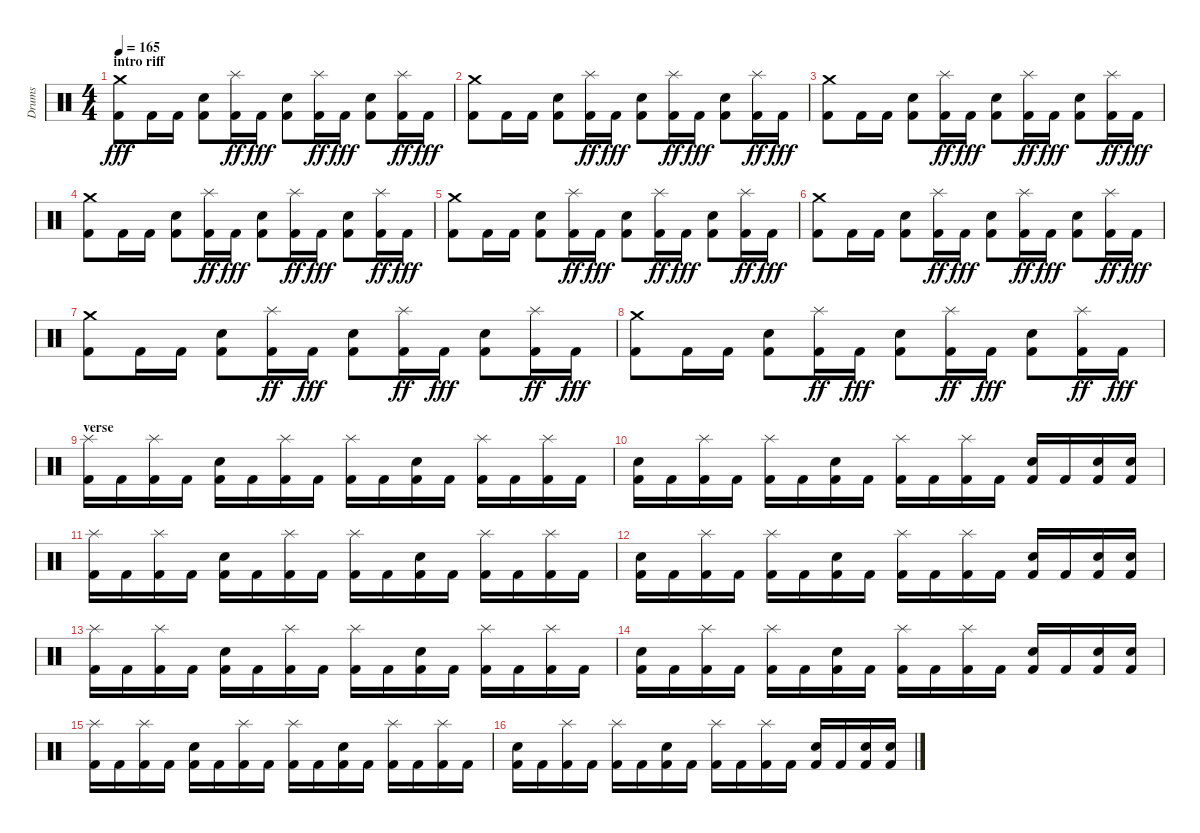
\track ("Drums" "Drums") {instrument percussion}
\staff {score}
\articulation defaults
\ts (4 4)
\section ("" "intro riff")
\tempo 165
\clef neutral
\ks c
("Kick (hit) 2" "Crash medium (hit)").8{dy fff} "Kick (hit) 2".16 "Kick (hit) 2".16 ("Kick (hit) 2" "Electric Snare (hit)").8 ("Kick (hit) 2" "Splash (hit)").16{dy ff} "Kick (hit) 2".16{dy fff} ("Kick (hit) 2" "Electric Snare (hit)").8 ("Kick (hit) 2" "Splash (hit)").16{dy ff} "Kick (hit) 2".16{dy fff} ("Kick (hit) 2" "Electric Snare (hit)").8 ("Kick (hit) 2" "Splash (hit)").16{dy ff} "Kick (hit) 2".16{dy fff} |
("Kick (hit) 2" "Crash medium (hit)").8 "Kick (hit) 2".16 "Kick (hit) 2".16 ("Kick (hit) 2" "Electric Snare (hit)").8 ("Kick (hit) 2" "Splash (hit)").16{dy ff} "Kick (hit) 2".16{dy fff} ("Kick (hit) 2" "Electric Snare (hit)").8 ("Kick (hit) 2" "Splash (hit)").16{dy ff} "Kick (hit) 2".16{dy fff} ("Kick (hit) 2" "Electric Snare (hit)").8 ("Kick (hit) 2" "Splash (hit)").16{dy ff} "Kick (hit) 2".16{dy fff} |
("Kick (hit) 2" "Crash medium (hit)").8 "Kick (hit) 2".16 "Kick (hit) 2".16 ("Kick (hit) 2" "Electric Snare (hit)").8 ("Kick (hit) 2" "Splash (hit)").16{dy ff} "Kick (hit) 2".16{dy fff} ("Kick (hit) 2" "Electric Snare (hit)").8 ("Kick (hit) 2" "Splash (hit)").16{dy ff} "Kick (hit) 2".16{dy fff} ("Kick (hit) 2" "Electric Snare (hit)").8 ("Kick (hit) 2" "Splash (hit)").16{dy ff} "Kick (hit) 2".16{dy fff} |
("Kick (hit) 2" "Crash medium (hit)").8 "Kick (hit) 2".16 "Kick (hit) 2".16 ("Kick (hit) 2" "Electric Snare (hit)").8 ("Kick (hit) 2" "Splash (hit)").16{dy ff} "Kick (hit) 2".16{dy fff} ("Kick (hit) 2" "Electric Snare (hit)").8 ("Kick (hit) 2" "Splash (hit)").16{dy ff} "Kick (hit) 2".16{dy fff} ("Kick (hit) 2" "Electric Snare (hit)").8 ("Kick (hit) 2" "Splash (hit)").16{dy ff} "Kick (hit) 2".16{dy fff} |
("Kick (hit) 2" "Crash medium (hit)").8 "Kick (hit) 2".16 "Kick (hit) 2".16 ("Kick (hit) 2" "Electric Snare (hit)").8 ("Kick (hit) 2" "Splash (hit)").16{dy ff} "Kick (hit) 2".16{dy fff} ("Kick (hit) 2" "Electric Snare (hit)").8 ("Kick (hit) 2" "Splash (hit)").16{dy ff} "Kick (hit) 2".16{dy fff} ("Kick (hit) 2" "Electric Snare (hit)").8 ("Kick (hit) 2" "Splash (hit)").16{dy ff} "Kick (hit) 2".16{dy fff} |
("Kick (hit) 2" "Crash medium (hit)").8 "Kick (hit) 2".16 "Kick (hit) 2".16 ("Kick (hit) 2" "Electric Snare (hit)").8 ("Kick (hit) 2" "Splash (hit)").16{dy ff} "Kick (hit) 2".16{dy fff} ("Kick (hit) 2" "Electric Snare (hit)").8 ("Kick (hit) 2" "Splash (hit)").16{dy ff} "Kick (hit) 2".16{dy fff} ("Kick (hit) 2" "Electric Snare (hit)").8 ("Kick (hit) 2" "Splash (hit)").16{dy ff} "Kick (hit) 2".16{dy fff} |
("Kick (hit) 2" "Crash medium (hit)").8 "Kick (hit) 2".16 "Kick (hit) 2".16 ("Kick (hit) 2" "Electric Snare (hit)").8 ("Kick (hit) 2" "Splash (hit)").16{dy ff} "Kick (hit) 2".16{dy fff} ("Kick (hit) 2" "Electric Snare (hit)").8 ("Kick (hit) 2" "Splash (hit)").16{dy ff} "Kick (hit) 2".16{dy fff} ("Kick (hit) 2" "Electric Snare (hit)").8 ("Kick (hit) 2" "Splash (hit)").16{dy ff} "Kick (hit) 2".16{dy fff} |
("Kick (hit) 2" "Crash medium (hit)").8 "Kick (hit) 2".16 "Kick (hit) 2".16 ("Kick (hit) 2" "Electric Snare (hit)").8 ("Kick (hit) 2" "Splash (hit)").16{dy ff} "Kick (hit) 2".16{dy fff} ("Kick (hit) 2" "Electric Snare (hit)").8 ("Kick (hit) 2" "Splash (hit)").16{dy ff} "Kick (hit) 2".16{dy fff} ("Kick (hit) 2" "Electric Snare (hit)").8 ("Kick (hit) 2" "Splash (hit)").16{dy ff} "Kick (hit) 2".16{dy fff} |
\section ("" "verse")
("Splash (hit)" "Kick (hit) 2").16 "Kick (hit) 2".16 ("Splash (hit)" "Kick (hit) 2").16 "Kick (hit) 2".16 ("Snare (hit) 2" "Kick (hit) 2").16 "Kick (hit) 2".16 ("Splash (hit)" "Kick (hit) 2").16 "Kick (hit) 2".16 ("Splash (hit)" "Kick (hit) 2").16 "Kick (hit) 2".16 ("Snare (hit) 2" "Kick (hit) 2").16 "Kick (hit) 2".16 ("Splash (hit)" "Kick (hit) 2").16 "Kick (hit) 2".16 ("Splash (hit)" "Kick (hit) 2").16 "Kick (hit) 2".16 |
("Snare (hit) 2" "Kick (hit) 2").16 "Kick (hit) 2".16 ("Splash (hit)" "Kick (hit) 2").16 "Kick (hit) 2".16 ("Splash (hit)" "Kick (hit) 2").16 "Kick (hit) 2".16 ("Snare (hit) 2" "Kick (hit) 2").16 "Kick (hit) 2".16 ("Splash (hit)" "Kick (hit) 2").16 "Kick (hit) 2".16 ("Splash (hit)" "Kick (hit) 2").16 "Kick (hit) 2".16 ("Snare (hit) 2" "Kick (hit) 2").16 "Kick (hit) 2".16 ("Snare (hit) 2" "Kick (hit) 2").16 ("Snare (hit) 2" "Kick (hit) 2").16 |
("Splash (hit)" "Kick (hit) 2").16 "Kick (hit) 2".16 ("Splash (hit)" "Kick (hit) 2").16 "Kick (hit) 2".16 ("Snare (hit) 2" "Kick (hit) 2").16 "Kick (hit) 2".16 ("Splash (hit)" "Kick (hit) 2").16 "Kick (hit) 2".16 ("Splash (hit)" "Kick (hit) 2").16 "Kick (hit) 2".16 ("Snare (hit) 2" "Kick (hit) 2").16 "Kick (hit) 2".16 ("Splash (hit)" "Kick (hit) 2").16 "Kick (hit) 2".16 ("Splash (hit)" "Kick (hit) 2").16 "Kick (hit) 2".16 |
("Snare (hit) 2" "Kick (hit) 2").16 "Kick (hit) 2".16 ("Splash (hit)" "Kick (hit) 2").16 "Kick (hit) 2".16 ("Splash (hit)" "Kick (hit) 2").16 "Kick (hit) 2".16 ("Snare (hit) 2" "Kick (hit) 2").16 "Kick (hit) 2".16 ("Splash (hit)" "Kick (hit) 2").16 "Kick (hit) 2".16 ("Splash (hit)" "Kick (hit) 2").16 "Kick (hit) 2".16 ("Snare (hit) 2" "Kick (hit) 2").16 "Kick (hit) 2".16 ("Snare (hit) 2" "Kick (hit) 2").16 ("Snare (hit) 2" "Kick (hit) 2").16 |
("Splash (hit)" "Kick (hit) 2").16 "Kick (hit) 2".16 ("Splash (hit)" "Kick (hit) 2").16 "Kick (hit) 2".16 ("Snare (hit) 2" "Kick (hit) 2").16 "Kick (hit) 2".16 ("Splash (hit)" "Kick (hit) 2").16 "Kick (hit) 2".16 ("Splash (hit)" "Kick (hit) 2").16 "Kick (hit) 2".16 ("Snare (hit) 2" "Kick (hit) 2").16 "Kick (hit) 2".16 ("Splash (hit)" "Kick (hit) 2").16 "Kick (hit) 2".16 ("Splash (hit)" "Kick (hit) 2").16 "Kick (hit) 2".16 |
("Snare (hit) 2" "Kick (hit) 2").16 "Kick (hit) 2".16 ("Splash (hit)" "Kick (hit) 2").16 "Kick (hit) 2".16 ("Splash (hit)" "Kick (hit) 2").16 "Kick (hit) 2".16 ("Snare (hit) 2" "Kick (hit) 2").16 "Kick (hit) 2".16 ("Splash (hit)" "Kick (hit) 2").16 "Kick (hit) 2".16 ("Splash (hit)" "Kick (hit) 2").16 "Kick (hit) 2".16 ("Snare (hit) 2" "Kick (hit) 2").16 "Kick (hit) 2".16 ("Snare (hit) 2" "Kick (hit) 2").16 ("Snare (hit) 2" "Kick (hit) 2").16 |
("Splash (hit)" "Kick (hit) 2").16 "Kick (hit) 2".16 ("Splash (hit)" "Kick (hit) 2").16 "Kick (hit) 2".16 ("Snare (hit) 2" "Kick (hit) 2").16 "Kick (hit) 2".16 ("Splash (hit)" "Kick (hit) 2").16 "Kick (hit) 2".16 ("Splash (hit)" "Kick (hit) 2").16 "Kick (hit) 2".16 ("Snare (hit) 2" "Kick (hit) 2").16 "Kick (hit) 2".16 ("Splash (hit)" "Kick (hit) 2").16 "Kick (hit) 2".16 ("Splash (hit)" "Kick (hit) 2").16 "Kick (hit) 2".16 |
("Snare (hit) 2" "Kick (hit) 2").16 "Kick (hit) 2".16 ("Splash (hit)" "Kick (hit) 2").16 "Kick (hit) 2".16 ("Splash (hit)" "Kick (hit) 2").16 "Kick (hit) 2".16 ("Snare (hit) 2" "Kick (hit) 2").16 "Kick (hit) 2".16 ("Splash (hit)" "Kick (hit) 2").16 "Kick (hit) 2".16 ("Splash (hit)" "Kick (hit) 2").16 "Kick (hit) 2".16 ("Snare (hit) 2" "Kick (hit) 2").16 "Kick (hit) 2".16 ("Snare (hit) 2" "Kick (hit) 2").16 ("Snare (hit) 2" "Kick (hit) 2").16
